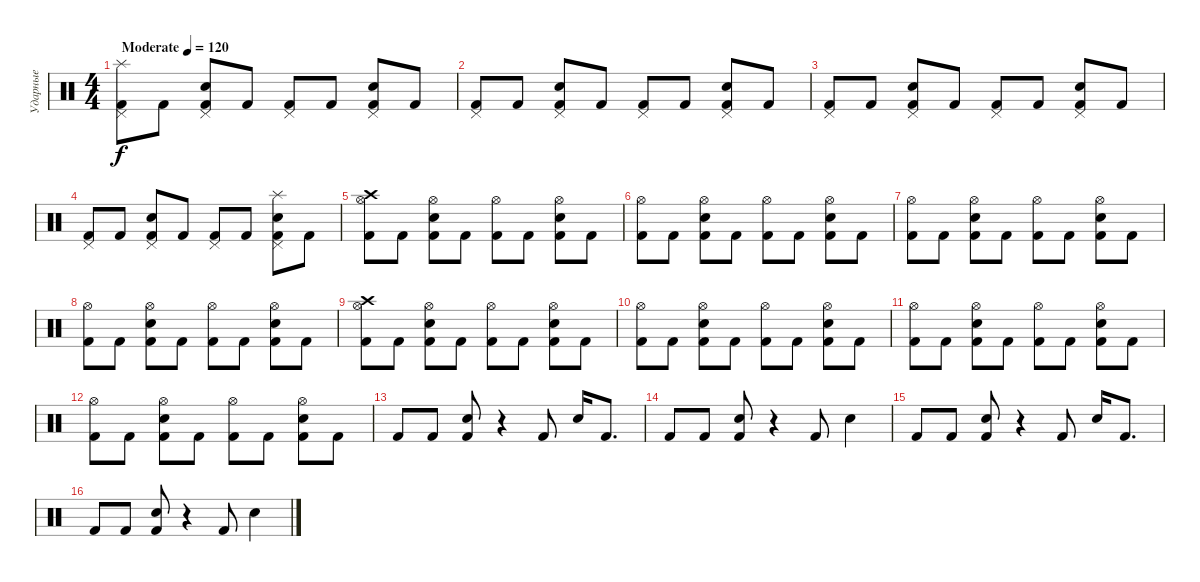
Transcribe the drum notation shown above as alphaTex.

\track ("Ударные" "Ударные") {instrument percussion}
\staff {score}
\articulation defaults
\ts (4 4)
\tempo (120 "Moderate")
\clef neutral
\ks c
("Splash (hit)" "Pedal Hi-Hat (hit)" "Kick (hit) 2").8{dy f} "Kick (hit) 2".8 ("Pedal Hi-Hat (hit)" "Electric Snare (hit)" "Kick (hit) 2").8 "Kick (hit) 2".8 ("Pedal Hi-Hat (hit)" "Kick (hit) 2").8 "Kick (hit) 2".8 ("Pedal Hi-Hat (hit)" "Electric Snare (hit)" "Kick (hit) 2").8 "Kick (hit) 2".8 |
("Pedal Hi-Hat (hit)" "Kick (hit) 2").8 "Kick (hit) 2".8 ("Pedal Hi-Hat (hit)" "Electric Snare (hit)" "Kick (hit) 2").8 "Kick (hit) 2".8 ("Pedal Hi-Hat (hit)" "Kick (hit) 2").8 "Kick (hit) 2".8 ("Pedal Hi-Hat (hit)" "Electric Snare (hit)" "Kick (hit) 2").8 "Kick (hit) 2".8 |
("Pedal Hi-Hat (hit)" "Kick (hit) 2").8 "Kick (hit) 2".8 ("Pedal Hi-Hat (hit)" "Electric Snare (hit)" "Kick (hit) 2").8 "Kick (hit) 2".8 ("Pedal Hi-Hat (hit)" "Kick (hit) 2").8 "Kick (hit) 2".8 ("Pedal Hi-Hat (hit)" "Electric Snare (hit)" "Kick (hit) 2").8 "Kick (hit) 2".8 |
("Pedal Hi-Hat (hit)" "Kick (hit) 2").8 "Kick (hit) 2".8 ("Pedal Hi-Hat (hit)" "Electric Snare (hit)" "Kick (hit) 2").8 "Kick (hit) 2".8 ("Pedal Hi-Hat (hit)" "Kick (hit) 2").8 "Kick (hit) 2".8 ("Pedal Hi-Hat (hit)" "Splash (hit)" "Electric Snare (hit)" "Kick (hit) 2").8 "Kick (hit) 2".8 |
("Crash high (hit)" "Hi-Hat (open)" "Kick (hit) 2").8 "Kick (hit) 2".8 ("Hi-Hat (open)" "Electric Snare (hit)" "Kick (hit) 2").8 "Kick (hit) 2".8 ("Hi-Hat (open)" "Kick (hit) 2").8 "Kick (hit) 2".8 ("Hi-Hat (open)" "Electric Snare (hit)" "Kick (hit) 2").8 "Kick (hit) 2".8 |
("Hi-Hat (open)" "Kick (hit) 2").8 "Kick (hit) 2".8 ("Hi-Hat (open)" "Electric Snare (hit)" "Kick (hit) 2").8 "Kick (hit) 2".8 ("Hi-Hat (open)" "Kick (hit) 2").8 "Kick (hit) 2".8 ("Hi-Hat (open)" "Electric Snare (hit)" "Kick (hit) 2").8 "Kick (hit) 2".8 |
("Hi-Hat (open)" "Kick (hit) 2").8 "Kick (hit) 2".8 ("Hi-Hat (open)" "Electric Snare (hit)" "Kick (hit) 2").8 "Kick (hit) 2".8 ("Hi-Hat (open)" "Kick (hit) 2").8 "Kick (hit) 2".8 ("Hi-Hat (open)" "Electric Snare (hit)" "Kick (hit) 2").8 "Kick (hit) 2".8 |
("Hi-Hat (open)" "Kick (hit) 2").8 "Kick (hit) 2".8 ("Hi-Hat (open)" "Electric Snare (hit)" "Kick (hit) 2").8 "Kick (hit) 2".8 ("Hi-Hat (open)" "Kick (hit) 2").8 "Kick (hit) 2".8 ("Hi-Hat (open)" "Electric Snare (hit)" "Kick (hit) 2").8 "Kick (hit) 2".8 |
("Crash high (hit)" "Hi-Hat (open)" "Kick (hit) 2").8 "Kick (hit) 2".8 ("Hi-Hat (open)" "Electric Snare (hit)" "Kick (hit) 2").8 "Kick (hit) 2".8 ("Hi-Hat (open)" "Kick (hit) 2").8 "Kick (hit) 2".8 ("Hi-Hat (open)" "Electric Snare (hit)" "Kick (hit) 2").8 "Kick (hit) 2".8 |
("Hi-Hat (open)" "Kick (hit) 2").8 "Kick (hit) 2".8 ("Hi-Hat (open)" "Electric Snare (hit)" "Kick (hit) 2").8 "Kick (hit) 2".8 ("Hi-Hat (open)" "Kick (hit) 2").8 "Kick (hit) 2".8 ("Hi-Hat (open)" "Electric Snare (hit)" "Kick (hit) 2").8 "Kick (hit) 2".8 |
("Hi-Hat (open)" "Kick (hit) 2").8 "Kick (hit) 2".8 ("Hi-Hat (open)" "Electric Snare (hit)" "Kick (hit) 2").8 "Kick (hit) 2".8 ("Hi-Hat (open)" "Kick (hit) 2").8 "Kick (hit) 2".8 ("Hi-Hat (open)" "Electric Snare (hit)" "Kick (hit) 2").8 "Kick (hit) 2".8 |
("Hi-Hat (open)" "Kick (hit) 2").8 "Kick (hit) 2".8 ("Hi-Hat (open)" "Electric Snare (hit)" "Kick (hit) 2").8 "Kick (hit) 2".8 ("Hi-Hat (open)" "Kick (hit) 2").8 "Kick (hit) 2".8 ("Hi-Hat (open)" "Electric Snare (hit)" "Kick (hit) 2").8 "Kick (hit) 2".8 |
"Kick (hit) 2".8 "Kick (hit) 2".8 ("Electric Snare (hit)" "Kick (hit) 2").8 r.4 "Kick (hit) 2".8 "Electric Snare (hit)".16 "Kick (hit) 2".8{d} |
"Kick (hit) 2".8 "Kick (hit) 2".8 ("Electric Snare (hit)" "Kick (hit) 2").8 r.4 "Kick (hit) 2".8 "Electric Snare (hit)".4 |
"Kick (hit) 2".8 "Kick (hit) 2".8 ("Electric Snare (hit)" "Kick (hit) 2").8 r.4 "Kick (hit) 2".8 "Electric Snare (hit)".16 "Kick (hit) 2".8{d} |
"Kick (hit) 2".8 "Kick (hit) 2".8 ("Electric Snare (hit)" "Kick (hit) 2").8 r.4 "Kick (hit) 2".8 "Electric Snare (hit)".4
